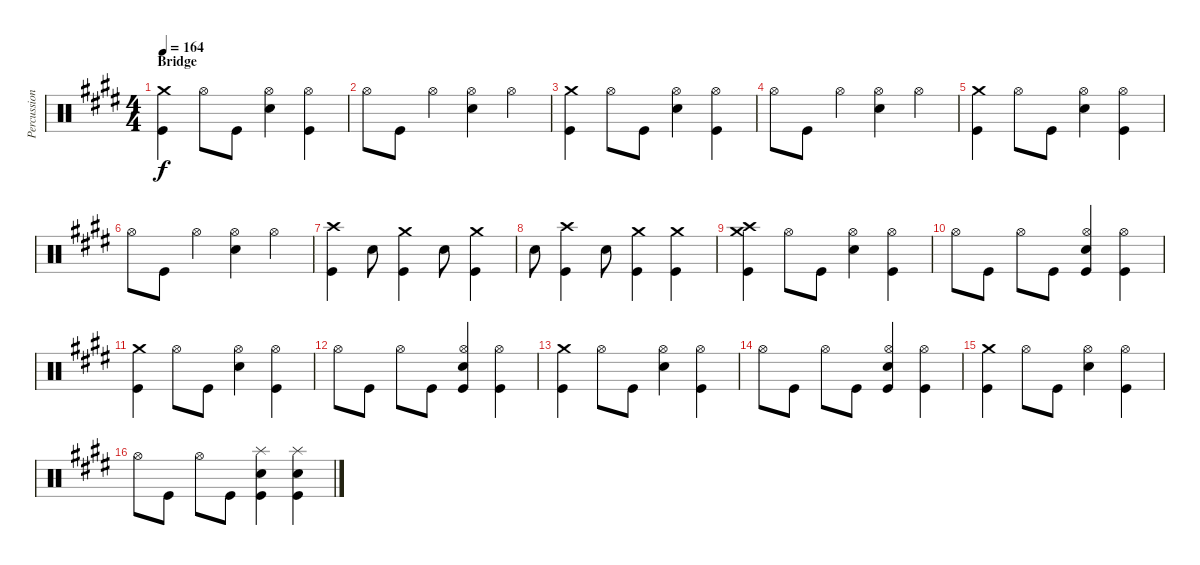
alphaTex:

\track ("Percussion" "Percussion") {instrument percussion}
\staff {score}
\articulation defaults
\ts (4 4)
\section ("" "Bridge")
\tempo 164
\clef neutral
\ks e
("Crash medium (hit)" "Kick (hit)").4{dy f} "Hi-Hat (open)".8 "Kick (hit)".8 ("Hi-Hat (open)" "Electric Snare (hit)").4 ("Hi-Hat (open)" "Kick (hit)").4 |
"Hi-Hat (open)".8 "Kick (hit)".8 "Hi-Hat (open)".4 ("Hi-Hat (open)" "Electric Snare (hit)").4 "Hi-Hat (open)".4 |
("Crash medium (hit)" "Kick (hit)").4 "Hi-Hat (open)".8 "Kick (hit)".8 ("Hi-Hat (open)" "Electric Snare (hit)").4 ("Hi-Hat (open)" "Kick (hit)").4 |
"Hi-Hat (open)".8 "Kick (hit)".8 "Hi-Hat (open)".4 ("Hi-Hat (open)" "Electric Snare (hit)").4 "Hi-Hat (open)".4 |
("Crash medium (hit)" "Kick (hit)").4 "Hi-Hat (open)".8 "Kick (hit)".8 ("Hi-Hat (open)" "Electric Snare (hit)").4 ("Hi-Hat (open)" "Kick (hit)").4 |
"Hi-Hat (open)".8 "Kick (hit)".8 "Hi-Hat (open)".4 ("Hi-Hat (open)" "Electric Snare (hit)").4 "Hi-Hat (open)".4 |
("Crash high (hit)" "Kick (hit)").4 "Electric Snare (hit)".8 ("Crash medium (hit)" "Kick (hit)").4 "Electric Snare (hit)".8 ("Crash medium (hit)" "Kick (hit)").4 |
"Electric Snare (hit)".8 ("Crash high (hit)" "Kick (hit)").4 "Electric Snare (hit)".8 ("Crash medium (hit)" "Kick (hit)").4 ("Crash medium (hit)" "Kick (hit)").4 |
("Crash high (hit)" "Crash medium (hit)" "Kick (hit)").4 "Hi-Hat (open)".8 "Kick (hit)".8 ("Hi-Hat (open)" "Electric Snare (hit)").4 ("Hi-Hat (open)" "Kick (hit)").4 |
"Hi-Hat (open)".8 "Kick (hit)".8 "Hi-Hat (open)".8 "Kick (hit)".8 ("Hi-Hat (open)" "Electric Snare (hit)" "Kick (hit)").4 ("Hi-Hat (open)" "Kick (hit)").4 |
("Crash medium (hit)" "Kick (hit)").4 "Hi-Hat (open)".8 "Kick (hit)".8 ("Hi-Hat (open)" "Electric Snare (hit)").4 ("Hi-Hat (open)" "Kick (hit)").4 |
"Hi-Hat (open)".8 "Kick (hit)".8 "Hi-Hat (open)".8 "Kick (hit)".8 ("Hi-Hat (open)" "Electric Snare (hit)" "Kick (hit)").4 ("Hi-Hat (open)" "Kick (hit)").4 |
("Crash medium (hit)" "Kick (hit)").4 "Hi-Hat (open)".8 "Kick (hit)".8 ("Hi-Hat (open)" "Electric Snare (hit)").4 ("Hi-Hat (open)" "Kick (hit)").4 |
"Hi-Hat (open)".8 "Kick (hit)".8 "Hi-Hat (open)".8 "Kick (hit)".8 ("Hi-Hat (open)" "Electric Snare (hit)" "Kick (hit)").4 ("Hi-Hat (open)" "Kick (hit)").4 |
("Crash medium (hit)" "Kick (hit)").4 "Hi-Hat (open)".8 "Kick (hit)".8 ("Hi-Hat (open)" "Electric Snare (hit)").4 ("Hi-Hat (open)" "Kick (hit)").4 |
"Hi-Hat (open)".8 "Kick (hit)".8 "Hi-Hat (open)".8 "Kick (hit)".8 ("Splash (hit)" "Electric Snare (hit)" "Kick (hit)").4 ("Splash (hit)" "Electric Snare (hit)" "Kick (hit)").4
